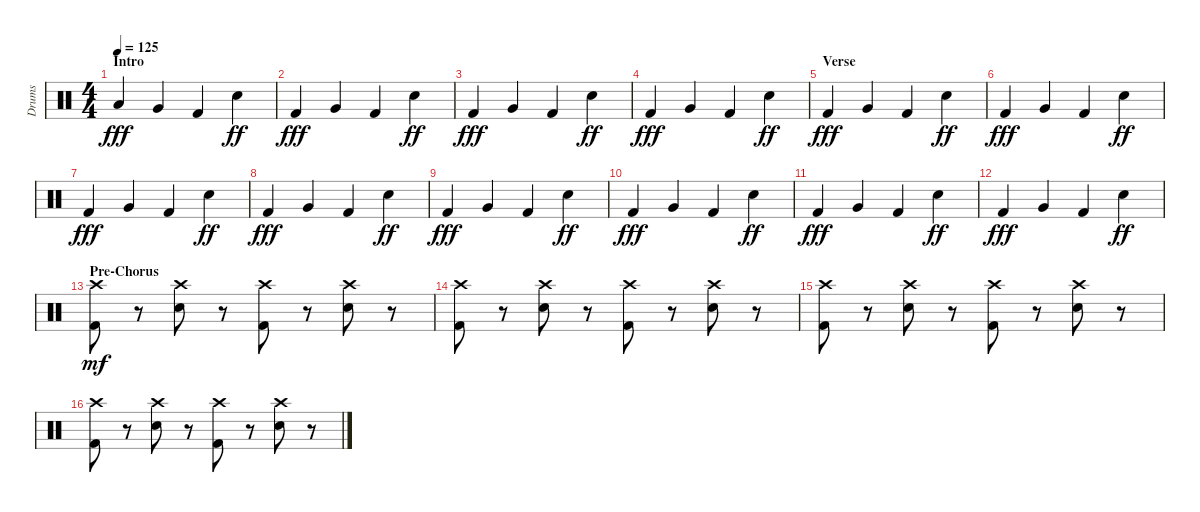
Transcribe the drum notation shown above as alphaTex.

\track ("Drums" "Drums") {instrument percussion}
\staff {score}
\articulation defaults
\ts (4 4)
\section ("" "Intro")
\tempo 125
\clef neutral
\ks c "Low Tom (hit)".4{dy fff} "Very Low Tom (hit)".4 "Kick (hit) 2".4 "Snare (hit) 2".4{dy ff}
|
"Kick (hit) 2".4{dy fff} "Very Low Tom (hit)".4 "Kick (hit) 2".4 "Snare (hit) 2".4{dy ff} |
"Kick (hit) 2".4{dy fff} "Very Low Tom (hit)".4 "Kick (hit) 2".4 "Snare (hit) 2".4{dy ff} |
"Kick (hit) 2".4{dy fff} "Very Low Tom (hit)".4 "Kick (hit) 2".4 "Snare (hit) 2".4{dy ff} |
\section ("" "Verse")
"Kick (hit) 2".4{dy fff} "Very Low Tom (hit)".4 "Kick (hit) 2".4 "Snare (hit) 2".4{dy ff} |
"Kick (hit) 2".4{dy fff} "Very Low Tom (hit)".4 "Kick (hit) 2".4 "Snare (hit) 2".4{dy ff} |
"Kick (hit) 2".4{dy fff} "Very Low Tom (hit)".4 "Kick (hit) 2".4 "Snare (hit) 2".4{dy ff} |
"Kick (hit) 2".4{dy fff} "Very Low Tom (hit)".4 "Kick (hit) 2".4 "Snare (hit) 2".4{dy ff} |
"Kick (hit) 2".4{dy fff} "Very Low Tom (hit)".4 "Kick (hit) 2".4 "Snare (hit) 2".4{dy ff} |
"Kick (hit) 2".4{dy fff} "Very Low Tom (hit)".4 "Kick (hit) 2".4 "Snare (hit) 2".4{dy ff} |
"Kick (hit) 2".4{dy fff} "Very Low Tom (hit)".4 "Kick (hit) 2".4 "Snare (hit) 2".4{dy ff} |
"Kick (hit) 2".4{dy fff} "Very Low Tom (hit)".4 "Kick (hit) 2".4 "Snare (hit) 2".4{dy ff} |
\section ("" "Pre-Chorus")
("Crash high (hit)" "Kick (hit) 2").8{dy mf} r.8 ("Crash high (hit)" "Snare (hit) 2").8 r.8 ("Crash high (hit)" "Kick (hit) 2").8 r.8 ("Crash high (hit)" "Snare (hit) 2").8 r.8 |
("Crash high (hit)" "Kick (hit) 2").8 r.8 ("Crash high (hit)" "Snare (hit) 2").8 r.8 ("Crash high (hit)" "Kick (hit) 2").8 r.8 ("Crash high (hit)" "Snare (hit) 2").8 r.8 |
("Crash high (hit)" "Kick (hit) 2").8 r.8 ("Crash high (hit)" "Snare (hit) 2").8 r.8 ("Crash high (hit)" "Kick (hit) 2").8 r.8 ("Crash high (hit)" "Snare (hit) 2").8 r.8 |
("Crash high (hit)" "Kick (hit) 2").8 r.8 ("Crash high (hit)" "Snare (hit) 2").8 r.8 ("Crash high (hit)" "Kick (hit) 2").8 r.8 ("Crash high (hit)" "Snare (hit) 2").8 r.8
